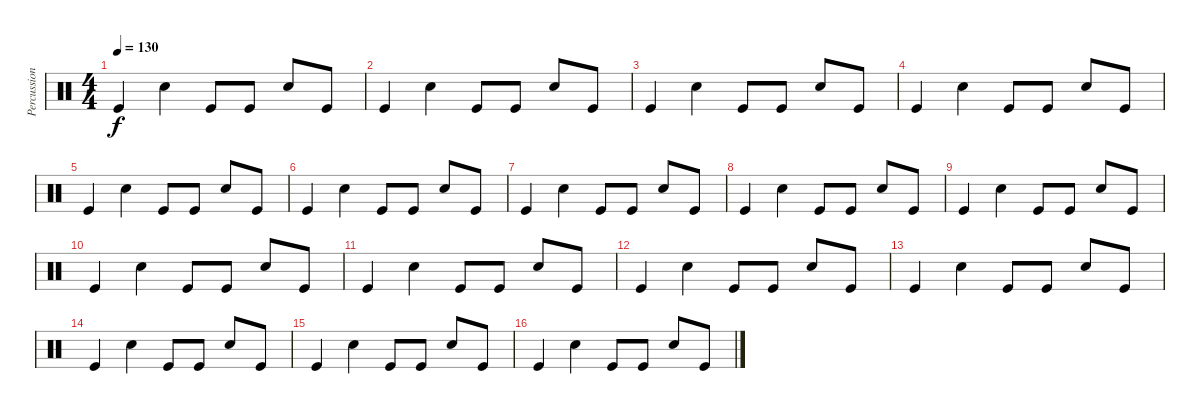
\track ("Percussion" "Percussion") {instrument percussion}
\staff {score}
\articulation defaults
\ts (4 4)
\tempo 130
\clef neutral
\ks c "Kick (hit)".4{dy f} "Snare (hit) 2".4 "Kick (hit)".8 "Kick (hit)".8 "Snare (hit) 2".8 "Kick (hit)".8
|
"Kick (hit)".4 "Snare (hit) 2".4 "Kick (hit)".8 "Kick (hit)".8 "Snare (hit) 2".8 "Kick (hit)".8 |
"Kick (hit)".4 "Snare (hit) 2".4 "Kick (hit)".8 "Kick (hit)".8 "Snare (hit) 2".8 "Kick (hit)".8 |
"Kick (hit)".4 "Snare (hit) 2".4 "Kick (hit)".8 "Kick (hit)".8 "Snare (hit) 2".8 "Kick (hit)".8 |
"Kick (hit)".4 "Snare (hit) 2".4 "Kick (hit)".8 "Kick (hit)".8 "Snare (hit) 2".8 "Kick (hit)".8 |
"Kick (hit)".4 "Snare (hit) 2".4 "Kick (hit)".8 "Kick (hit)".8 "Snare (hit) 2".8 "Kick (hit)".8 |
"Kick (hit)".4 "Snare (hit) 2".4 "Kick (hit)".8 "Kick (hit)".8 "Snare (hit) 2".8 "Kick (hit)".8 |
"Kick (hit)".4 "Snare (hit) 2".4 "Kick (hit)".8 "Kick (hit)".8 "Snare (hit) 2".8 "Kick (hit)".8 |
"Kick (hit)".4 "Snare (hit) 2".4 "Kick (hit)".8 "Kick (hit)".8 "Snare (hit) 2".8 "Kick (hit)".8 |
"Kick (hit)".4 "Snare (hit) 2".4 "Kick (hit)".8 "Kick (hit)".8 "Snare (hit) 2".8 "Kick (hit)".8 |
"Kick (hit)".4 "Snare (hit) 2".4 "Kick (hit)".8 "Kick (hit)".8 "Snare (hit) 2".8 "Kick (hit)".8 |
"Kick (hit)".4 "Snare (hit) 2".4 "Kick (hit)".8 "Kick (hit)".8 "Snare (hit) 2".8 "Kick (hit)".8 |
"Kick (hit)".4 "Snare (hit) 2".4 "Kick (hit)".8 "Kick (hit)".8 "Snare (hit) 2".8 "Kick (hit)".8 |
"Kick (hit)".4 "Snare (hit) 2".4 "Kick (hit)".8 "Kick (hit)".8 "Snare (hit) 2".8 "Kick (hit)".8 |
"Kick (hit)".4 "Snare (hit) 2".4 "Kick (hit)".8 "Kick (hit)".8 "Snare (hit) 2".8 "Kick (hit)".8 |
"Kick (hit)".4 "Snare (hit) 2".4 "Kick (hit)".8 "Kick (hit)".8 "Snare (hit) 2".8 "Kick (hit)".8
